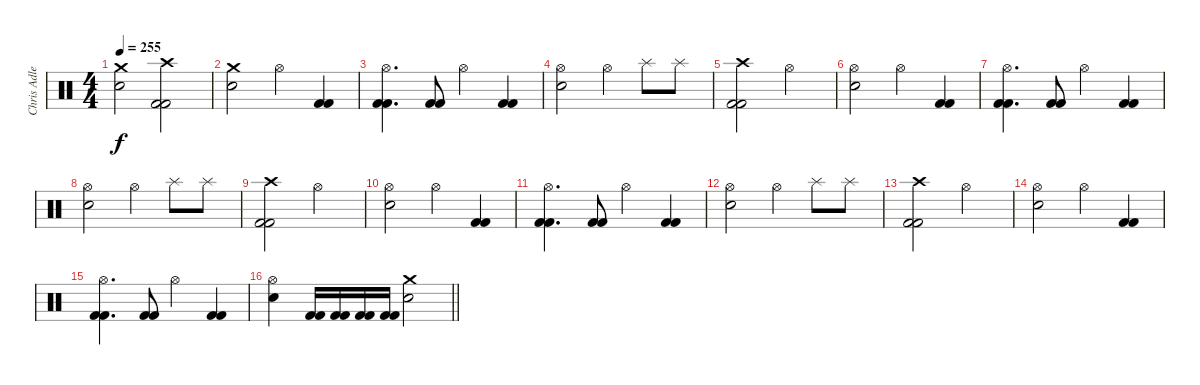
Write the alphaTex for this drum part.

\track ("Chris Adler" "Chris Adle") {instrument percussion}
\staff {score}
\articulation defaults
\ts (4 4)
\tempo 255
\clef neutral
\ks c
("Crash medium (hit)" "Electric Snare (hit)").2{dy f} ("Crash high (hit)" "Kick (hit) 2" "Kick (hit) 2").2 |
("Crash medium (hit)" "Electric Snare (hit)").2 "Hi-Hat (open)".4 ("Kick (hit) 2" "Kick (hit) 2").4 |
("Hi-Hat (open)" "Kick (hit) 2" "Kick (hit) 2").4{d} ("Kick (hit) 2" "Kick (hit) 2").8 "Hi-Hat (open)".4 ("Kick (hit) 2" "Kick (hit) 2").4 |
("Hi-Hat (open)" "Electric Snare (hit)").2 "Hi-Hat (open)".4 "Splash (hit)".8 "Splash (hit)".8 |
("Crash high (hit)" "Kick (hit) 2" "Kick (hit) 2").2 "Hi-Hat (open)".2 |
("Hi-Hat (open)" "Electric Snare (hit)").2 "Hi-Hat (open)".4 ("Kick (hit) 2" "Kick (hit) 2").4 |
("Hi-Hat (open)" "Kick (hit) 2" "Kick (hit) 2").4{d} ("Kick (hit) 2" "Kick (hit) 2").8 "Hi-Hat (open)".4 ("Kick (hit) 2" "Kick (hit) 2").4 |
("Hi-Hat (open)" "Electric Snare (hit)").2 "Hi-Hat (open)".4 "Splash (hit)".8 "Splash (hit)".8 |
("Crash high (hit)" "Kick (hit) 2" "Kick (hit) 2").2 "Hi-Hat (open)".2 |
("Hi-Hat (open)" "Electric Snare (hit)").2 "Hi-Hat (open)".4 ("Kick (hit) 2" "Kick (hit) 2").4 |
("Hi-Hat (open)" "Kick (hit) 2" "Kick (hit) 2").4{d} ("Kick (hit) 2" "Kick (hit) 2").8 "Hi-Hat (open)".4 ("Kick (hit) 2" "Kick (hit) 2").4 |
("Hi-Hat (open)" "Electric Snare (hit)").2 "Hi-Hat (open)".4 "Splash (hit)".8 "Splash (hit)".8 |
("Crash high (hit)" "Kick (hit) 2" "Kick (hit) 2").2 "Hi-Hat (open)".2 |
("Hi-Hat (open)" "Electric Snare (hit)").2 "Hi-Hat (open)".4 ("Kick (hit) 2" "Kick (hit) 2").4 |
("Hi-Hat (open)" "Kick (hit) 2" "Kick (hit) 2").4{d} ("Kick (hit) 2" "Kick (hit) 2").8 "Hi-Hat (open)".4 ("Kick (hit) 2" "Kick (hit) 2").4 |
\barLineRight lightlight
("Hi-Hat (open)" "Electric Snare (hit)").4 ("Kick (hit) 2" "Kick (hit) 2").16 ("Kick (hit) 2" "Kick (hit) 2").16 ("Kick (hit) 2" "Kick (hit) 2").16 ("Kick (hit) 2" "Kick (hit) 2").16 ("Crash medium (hit)" "Electric Snare (hit)").2
